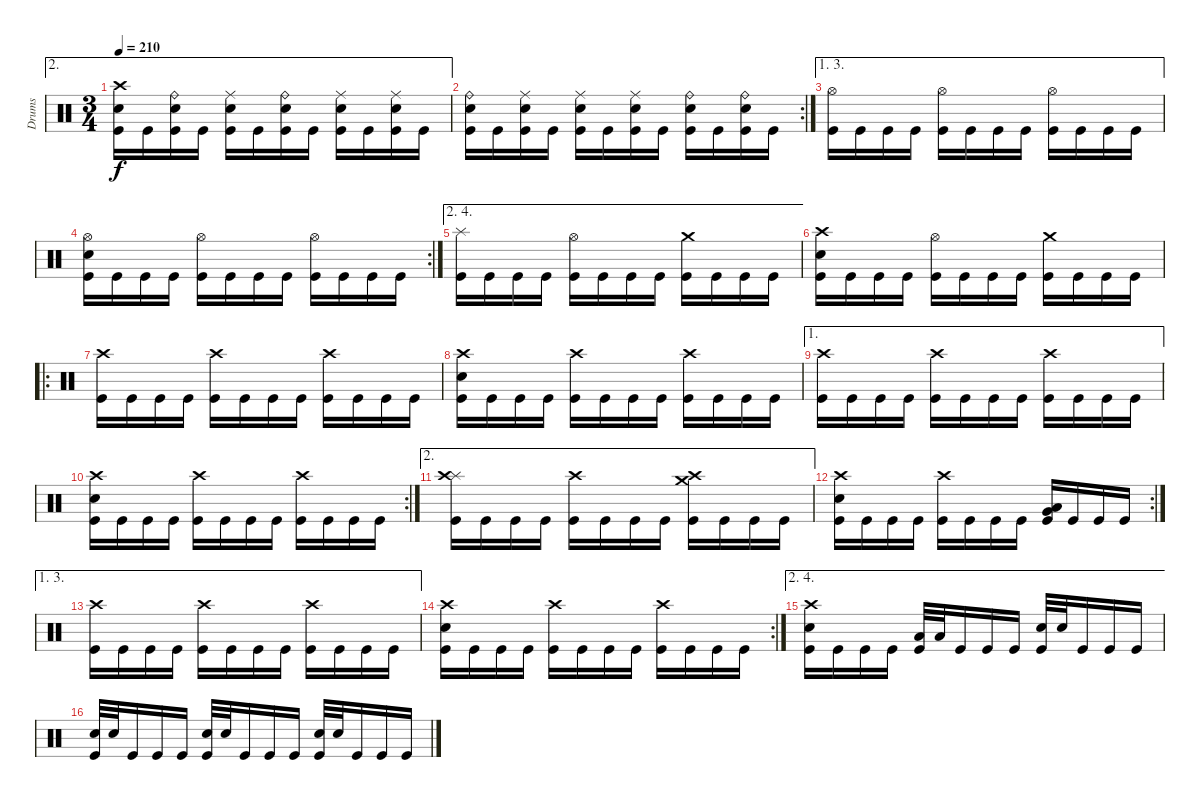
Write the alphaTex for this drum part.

\track ("Drums" "Drums") {instrument percussion}
\staff {score}
\articulation defaults
\ae 2
\ts (3 4)
\tempo 210
\clef neutral
\ks c
("Crash high (hit)" "Electric Snare (hit)" "Kick (hit)").16{dy f} "Kick (hit)".16 ("Ride (bell)" "Electric Snare (hit)" "Kick (hit)").16 "Kick (hit)".16 ("Ride (middle)" "Electric Snare (hit)" "Kick (hit)").16 "Kick (hit)".16 ("Ride (bell)" "Electric Snare (hit)" "Kick (hit)").16 "Kick (hit)".16 ("Ride (middle)" "Electric Snare (hit)" "Kick (hit)").16 "Kick (hit)".16 ("Ride (middle)" "Electric Snare (hit)" "Kick (hit)").16 "Kick (hit)".16 |
\rc 2
("Ride (bell)" "Electric Snare (hit)" "Kick (hit)").16 "Kick (hit)".16 ("Ride (middle)" "Electric Snare (hit)" "Kick (hit)").16 "Kick (hit)".16 ("Ride (middle)" "Electric Snare (hit)" "Kick (hit)").16 "Kick (hit)".16 ("Ride (middle)" "Electric Snare (hit)" "Kick (hit)").16 "Kick (hit)".16 ("Ride (bell)" "Electric Snare (hit)" "Kick (hit)").16 "Kick (hit)".16 ("Ride (bell)" "Electric Snare (hit)" "Kick (hit)").16 "Kick (hit)".16 |
\ae (1 3)
("Hi-Hat (open)" "Kick (hit)").16 "Kick (hit)".16 "Kick (hit)".16 "Kick (hit)".16 ("Hi-Hat (open)" "Kick (hit)").16 "Kick (hit)".16 "Kick (hit)".16 "Kick (hit)".16 ("Hi-Hat (open)" "Kick (hit)").16 "Kick (hit)".16 "Kick (hit)".16 "Kick (hit)".16 |
\rc 2
("Hi-Hat (open)" "Electric Snare (hit)" "Kick (hit)").16 "Kick (hit)".16 "Kick (hit)".16 "Kick (hit)".16 ("Hi-Hat (open)" "Kick (hit)").16 "Kick (hit)".16 "Kick (hit)".16 "Kick (hit)".16 ("Hi-Hat (open)" "Kick (hit)").16 "Kick (hit)".16 "Kick (hit)".16 "Kick (hit)".16 |
\ae (2 4)
("Splash (hit)" "Kick (hit)").16 "Kick (hit)".16 "Kick (hit)".16 "Kick (hit)".16 ("Hi-Hat (open)" "Kick (hit)").16 "Kick (hit)".16 "Kick (hit)".16 "Kick (hit)".16 ("Crash medium (hit)" "Kick (hit)").16 "Kick (hit)".16 "Kick (hit)".16 "Kick (hit)".16 |
("Crash high (hit)" "Electric Snare (hit)" "Kick (hit)").16 "Kick (hit)".16 "Kick (hit)".16 "Kick (hit)".16 ("Hi-Hat (open)" "Kick (hit)").16 "Kick (hit)".16 "Kick (hit)".16 "Kick (hit)".16 ("Crash medium (hit)" "Kick (hit)").16 "Kick (hit)".16 "Kick (hit)".16 "Kick (hit)".16 |
\ro
("Crash high (hit)" "Kick (hit)").16 "Kick (hit)".16 "Kick (hit)".16 "Kick (hit)".16 ("Crash high (hit)" "Kick (hit)").16 "Kick (hit)".16 "Kick (hit)".16 "Kick (hit)".16 ("Crash high (hit)" "Kick (hit)").16 "Kick (hit)".16 "Kick (hit)".16 "Kick (hit)".16 |
("Crash high (hit)" "Electric Snare (hit)" "Kick (hit)").16 "Kick (hit)".16 "Kick (hit)".16 "Kick (hit)".16 ("Crash high (hit)" "Kick (hit)").16 "Kick (hit)".16 "Kick (hit)".16 "Kick (hit)".16 ("Crash high (hit)" "Kick (hit)").16 "Kick (hit)".16 "Kick (hit)".16 "Kick (hit)".16 |
\ae 1
("Crash high (hit)" "Kick (hit)").16 "Kick (hit)".16 "Kick (hit)".16 "Kick (hit)".16 ("Crash high (hit)" "Kick (hit)").16 "Kick (hit)".16 "Kick (hit)".16 "Kick (hit)".16 ("Crash high (hit)" "Kick (hit)").16 "Kick (hit)".16 "Kick (hit)".16 "Kick (hit)".16 |
\rc 2
("Crash high (hit)" "Electric Snare (hit)" "Kick (hit)").16 "Kick (hit)".16 "Kick (hit)".16 "Kick (hit)".16 ("Crash high (hit)" "Kick (hit)").16 "Kick (hit)".16 "Kick (hit)".16 "Kick (hit)".16 ("Crash high (hit)" "Kick (hit)").16 "Kick (hit)".16 "Kick (hit)".16 "Kick (hit)".16 |
\ae 2
("Splash (hit)" "Crash high (hit)" "Kick (hit)").16 "Kick (hit)".16 "Kick (hit)".16 "Kick (hit)".16 ("Crash high (hit)" "Kick (hit)").16 "Kick (hit)".16 "Kick (hit)".16 "Kick (hit)".16 ("Crash medium (hit)" "Crash high (hit)" "Kick (hit)").16 "Kick (hit)".16 "Kick (hit)".16 "Kick (hit)".16 |
\rc 2
("Crash high (hit)" "Electric Snare (hit)" "Kick (hit)").16 "Kick (hit)".16 "Kick (hit)".16 "Kick (hit)".16 ("Crash high (hit)" "Kick (hit)").16 "Kick (hit)".16 "Kick (hit)".16 "Kick (hit)".16 ("Low Floor Tom (hit)" "Very Low Tom (hit)" "Kick (hit)").16 "Kick (hit)".16 "Kick (hit)".16 "Kick (hit)".16 |
\ae (1 3)
("Crash high (hit)" "Kick (hit)").16 "Kick (hit)".16 "Kick (hit)".16 "Kick (hit)".16 ("Crash high (hit)" "Kick (hit)").16 "Kick (hit)".16 "Kick (hit)".16 "Kick (hit)".16 ("Crash high (hit)" "Kick (hit)").16 "Kick (hit)".16 "Kick (hit)".16 "Kick (hit)".16 |
\rc 2
("Crash high (hit)" "Electric Snare (hit)" "Kick (hit)").16 "Kick (hit)".16 "Kick (hit)".16 "Kick (hit)".16 ("Crash high (hit)" "Kick (hit)").16 "Kick (hit)".16 "Kick (hit)".16 "Kick (hit)".16 ("Crash high (hit)" "Kick (hit)").16 "Kick (hit)".16 "Kick (hit)".16 "Kick (hit)".16 |
\ae (2 4)
("Crash high (hit)" "Electric Snare (hit)" "Kick (hit)").16 "Kick (hit)".16 "Kick (hit)".16 "Kick (hit)".16 ("Low Tom (hit)" "Kick (hit)").32 "Low Tom (hit)".32 "Kick (hit)".16 "Kick (hit)".16 "Kick (hit)".16 ("Electric Snare (hit)" "Kick (hit)").32 "Electric Snare (hit)".32 "Kick (hit)".16 "Kick (hit)".16 "Kick (hit)".16 |
("Electric Snare (hit)" "Kick (hit)").32 "Electric Snare (hit)".32 "Kick (hit)".16 "Kick (hit)".16 "Kick (hit)".16 ("Electric Snare (hit)" "Kick (hit)").32 "Electric Snare (hit)".32 "Kick (hit)".16 "Kick (hit)".16 "Kick (hit)".16 ("Electric Snare (hit)" "Kick (hit)").32 "Electric Snare (hit)".32 "Kick (hit)".16 "Kick (hit)".16 "Kick (hit)".16
